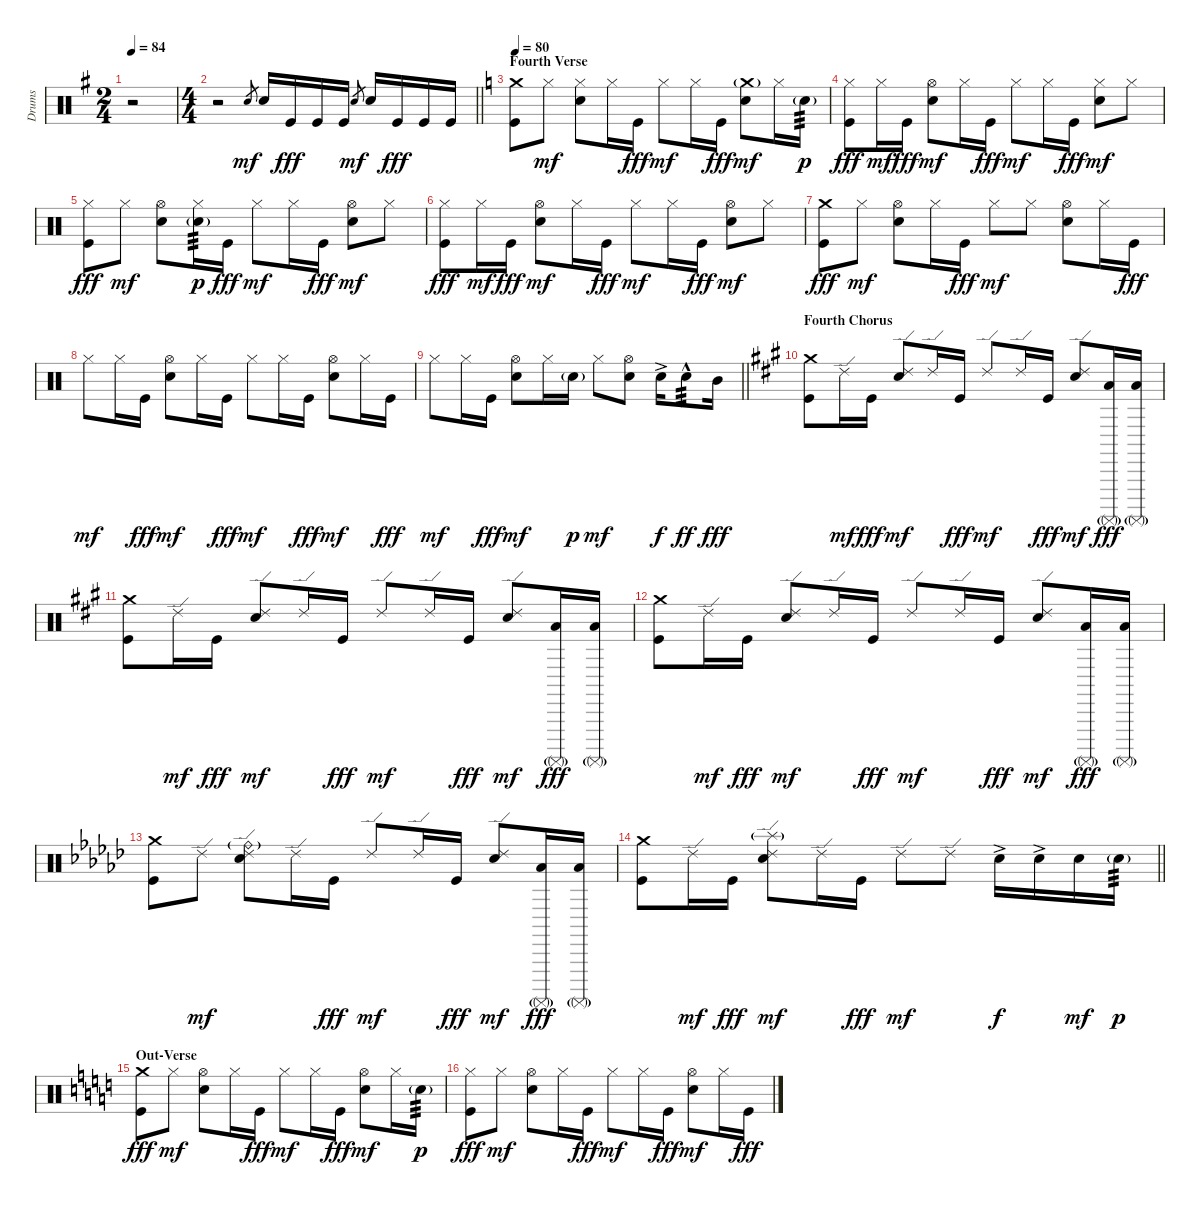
\track ("Drums" "Drums") {instrument percussion}
\staff {score}
\articulation defaults
\ts (2 4)
\tempo 84
\clef neutral
\ks eminor
r.2{dy fff} |
\ts (4 4)
\barLineRight lightlight
r.2 "Electric Snare (hit)".8{gr dy mf} "Electric Snare (hit)".16 "Kick (hit)".16{dy fff} "Kick (hit)".16 "Kick (hit)".16 "Electric Snare (hit)".8{gr dy mf} "Electric Snare (hit)".16 "Kick (hit)".16{dy fff} "Kick (hit)".16 "Kick (hit)".16 |
\section ("" "Fourth Verse")
\tempo 80
\ks c
("Crash medium (hit)" "Kick (hit)").8 "Hi-Hat (closed)".8{dy mf} ("Hi-Hat (closed)" "Electric Snare (hit)").8 "Hi-Hat (closed)".16 "Kick (hit)".16{dy fff} "Hi-Hat (closed)".8{dy mf} "Hi-Hat (closed)".16 "Kick (hit)".16{dy fff} ("Crash medium (hit)"{g} "Electric Snare (hit)").8{dy mf} "Hi-Hat (closed)".16 "Electric Snare (hit)"{g}.16{tp 3 dy p} |
("Hi-Hat (closed)" "Kick (hit)").8{dy fff} "Hi-Hat (closed)".16{dy mf} "Kick (hit)".16{dy fff} ("Hi-Hat (open)" "Electric Snare (hit)").8{dy mf} "Hi-Hat (closed)".16 "Kick (hit)".16{dy fff} "Hi-Hat (closed)".8{dy mf} "Hi-Hat (closed)".16 "Kick (hit)".16{dy fff} ("Hi-Hat (closed)" "Electric Snare (hit)").8{dy mf} "Hi-Hat (closed)".8 |
("Hi-Hat (closed)" "Kick (hit)").8{dy fff} "Hi-Hat (closed)".8{dy mf} ("Hi-Hat (open)" "Electric Snare (hit)").8 ("Hi-Hat (closed)" "Electric Snare (hit)"{g}).16{tp 3 dy p} "Kick (hit)".16{dy fff} "Hi-Hat (closed)".8{dy mf} "Hi-Hat (closed)".16 "Kick (hit)".16{dy fff} ("Hi-Hat (open)" "Electric Snare (hit)").8{dy mf} "Hi-Hat (closed)".8 |
("Hi-Hat (closed)" "Kick (hit)").8{dy fff} "Hi-Hat (closed)".16{dy mf} "Kick (hit)".16{dy fff} ("Hi-Hat (open)" "Electric Snare (hit)").8{dy mf} "Hi-Hat (closed)".16 "Kick (hit)".16{dy fff} "Hi-Hat (closed)".8{dy mf} "Hi-Hat (closed)".16 "Kick (hit)".16{dy fff} ("Hi-Hat (open)" "Electric Snare (hit)").8{dy mf} "Hi-Hat (closed)".8 |
("Crash medium (hit)" "Kick (hit)").8{dy fff} "Hi-Hat (closed)".8{dy mf} ("Hi-Hat (open)" "Electric Snare (hit)").8 "Hi-Hat (closed)".16 "Kick (hit)".16{dy fff} "Hi-Hat (closed)".8{dy mf} "Hi-Hat (closed)".8 ("Hi-Hat (open)" "Electric Snare (hit)").8 "Hi-Hat (closed)".16 "Kick (hit)".16{dy fff} |
"Hi-Hat (closed)".8{dy mf} "Hi-Hat (closed)".16 "Kick (hit)".16{dy fff} ("Hi-Hat (open)" "Electric Snare (hit)").8{dy mf} "Hi-Hat (closed)".16 "Kick (hit)".16{dy fff} "Hi-Hat (closed)".8{dy mf} "Hi-Hat (closed)".16 "Kick (hit)".16{dy fff} ("Hi-Hat (open)" "Electric Snare (hit)").8{dy mf} "Hi-Hat (closed)".16 "Kick (hit)".16{dy fff} |
\barLineRight lightlight "Hi-Hat (closed)".8{dy mf} "Hi-Hat (closed)".16 "Kick (hit)".16{dy fff}
("Hi-Hat (open)" "Electric Snare (hit)").8{dy mf} "Hi-Hat (closed)".16 "Electric Snare (hit)"{g}.16{dy p} "Hi-Hat (closed)".8{dy mf} ("Hi-Hat (open)" "Electric Snare (hit)").8 "Electric Snare (hit)"{ac}.16{dy f} "Electric Snare (hit)"{hac}.8{tp 3 dy ff} "Mid Tom (hit)".16{dy fff} |
\section ("" "Fourth Chorus")
\ks a
("Crash medium (hit)" "Kick (hit)").8 "Ride (edge) 2".16{dy mf} "Kick (hit)".16{dy fff} ("Ride (edge) 2" "Electric Snare (hit)").8{dy mf} "Ride (edge) 2".16 "Kick (hit)".16{dy fff} "Ride (edge) 2".8{dy mf} "Ride (edge) 2".16 "Kick (hit)".16{dy fff} ("Ride (edge) 2" "Electric Snare (hit)").8{dy mf} ("Surdo (mute)"{g} "Low Tom (hit)").16{dy fff} ("Surdo (mute)"{g} "Low Tom (hit)").16 |
("Crash medium (hit)" "Kick (hit)").8 "Ride (edge) 2".16{dy mf} "Kick (hit)".16{dy fff} ("Ride (edge) 2" "Electric Snare (hit)").8{dy mf} "Ride (edge) 2".16 "Kick (hit)".16{dy fff} "Ride (edge) 2".8{dy mf} "Ride (edge) 2".16 "Kick (hit)".16{dy fff} ("Ride (edge) 2" "Electric Snare (hit)").8{dy mf} ("Surdo (mute)"{g} "Low Tom (hit)").16{dy fff} ("Surdo (mute)"{g} "Low Tom (hit)").16 |
("Crash medium (hit)" "Kick (hit)").8 "Ride (edge) 2".16{dy mf} "Kick (hit)".16{dy fff} ("Ride (edge) 2" "Electric Snare (hit)").8{dy mf} "Ride (edge) 2".16 "Kick (hit)".16{dy fff} "Ride (edge) 2".8{dy mf} "Ride (edge) 2".16 "Kick (hit)".16{dy fff} ("Ride (edge) 2" "Electric Snare (hit)").8{dy mf} ("Surdo (mute)"{g} "Low Tom (hit)").16{dy fff} ("Surdo (mute)"{g} "Low Tom (hit)").16 |
\ks gb
("Crash medium (hit)" "Kick (hit)").8 "Ride (edge) 2".8{dy mf} ("Ride (edge) 2" "Ride (bell)"{g} "Electric Snare (hit)").8 "Ride (edge) 2".16 "Kick (hit)".16{dy fff} "Ride (edge) 2".8{dy mf} "Ride (edge) 2".16 "Kick (hit)".16{dy fff} ("Ride (edge) 2" "Electric Snare (hit)").8{dy mf} ("Surdo (mute)"{g} "Low Tom (hit)").16{dy fff} ("Surdo (mute)"{g} "Low Tom (hit)").16 |
\barLineRight lightlight
("Crash medium (hit)" "Kick (hit)").8 "Ride (edge) 2".16{dy mf} "Kick (hit)".16{dy fff} ("Ride (edge) 2" "Splash (hit)"{g} "Electric Snare (hit)").8{dy mf} "Ride (edge) 2".16 "Kick (hit)".16{dy fff} "Ride (edge) 2".8{dy mf} "Ride (edge) 2".8 "Electric Snare (hit)"{ac}.16{dy f} "Electric Snare (hit)"{ac}.16 "Electric Snare (hit)".16{dy mf} "Electric Snare (hit)"{g}.16{tp 3 dy p} |
\section ("" "Out-Verse")
\ks c
("Crash medium (hit)" "Kick (hit)").8{dy fff} "Hi-Hat (closed)".8{dy mf} ("Hi-Hat (open)" "Electric Snare (hit)").8 "Hi-Hat (closed)".16 "Kick (hit)".16{dy fff} "Hi-Hat (closed)".8{dy mf} "Hi-Hat (closed)".16 "Kick (hit)".16{dy fff} ("Hi-Hat (open)" "Electric Snare (hit)").8{dy mf} "Hi-Hat (closed)".16 "Electric Snare (hit)"{g}.16{tp 3 dy p} |
("Hi-Hat (closed)" "Kick (hit)").8{dy fff} "Hi-Hat (closed)".8{dy mf} ("Hi-Hat (open)" "Electric Snare (hit)").8 "Hi-Hat (closed)".16 "Kick (hit)".16{dy fff} "Hi-Hat (closed)".8{dy mf} "Hi-Hat (closed)".16 "Kick (hit)".16{dy fff} ("Hi-Hat (open)" "Electric Snare (hit)").8{dy mf} "Hi-Hat (closed)".16 "Kick (hit)".16{dy fff}
